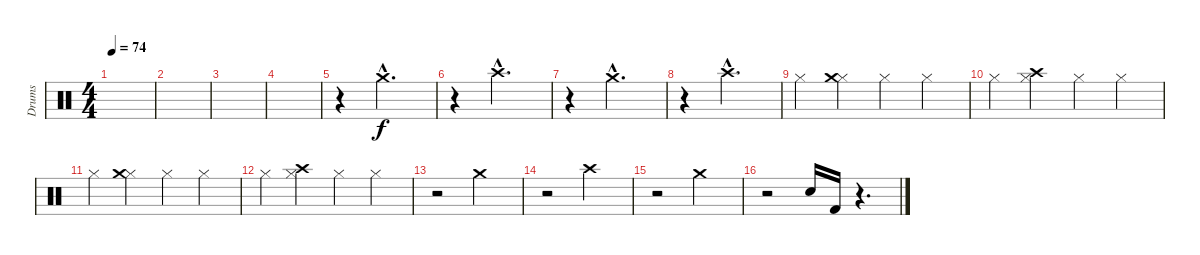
\track ("Drums" "Drums") {instrument percussion}
\staff {score}
\articulation defaults
\ts (4 4)
\tempo 74
\clef neutral
\ks c
|
|
|
|
r.4 "Crash medium (hit)"{hac}.2{d} |
r.4 "Crash high (hit)"{hac}.2{d} |
r.4 "Crash medium (hit)"{hac}.2{d} |
r.4 "Crash high (hit)"{hac}.2{d} |
"Hi-Hat (closed)".4 ("Hi-Hat (closed)" "Crash medium (hit)").4 "Hi-Hat (closed)".4 "Hi-Hat (closed)".4 |
"Hi-Hat (closed)".4 ("Hi-Hat (closed)" "Crash high (hit)").4 "Hi-Hat (closed)".4 "Hi-Hat (closed)".4 |
"Hi-Hat (closed)".4 ("Hi-Hat (closed)" "Crash medium (hit)").4 "Hi-Hat (closed)".4 "Hi-Hat (closed)".4 |
"Hi-Hat (closed)".4 ("Hi-Hat (closed)" "Crash high (hit)").4 "Hi-Hat (closed)".4 "Hi-Hat (closed)".4 |
r.2 "Crash medium (hit)".2 |
r.2 "Crash high (hit)".2 |
r.2 "Crash medium (hit)".2 |
r.2 "Snare (hit) 2".16 "Kick (hit) 2".16 r.4{d}
